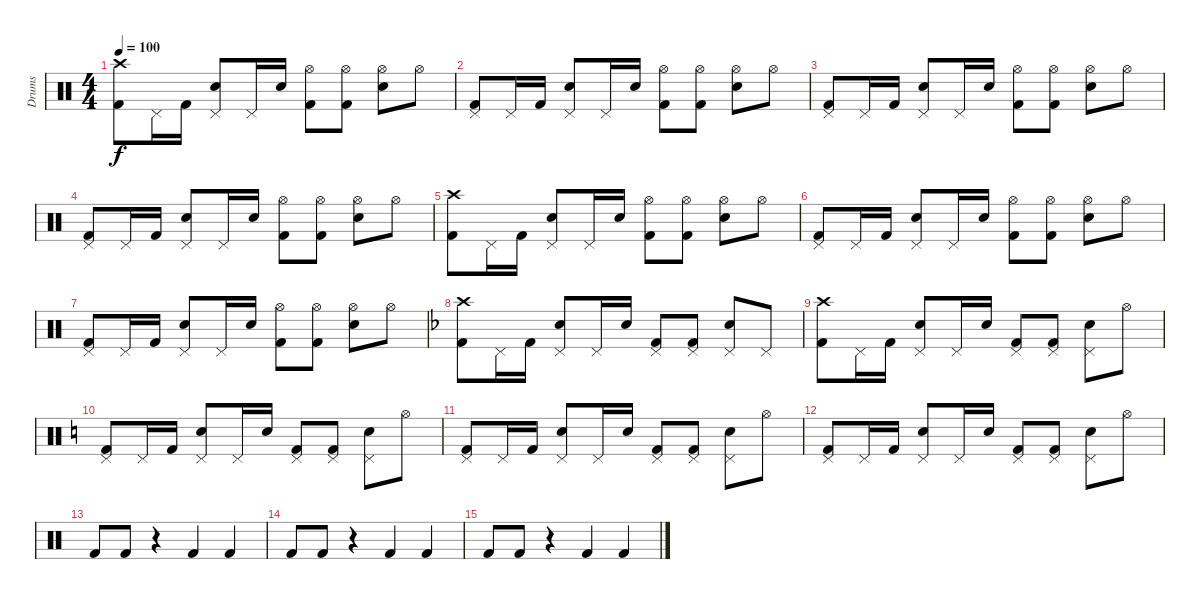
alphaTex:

\track ("Drums" "Drums") {instrument percussion}
\staff {score}
\articulation defaults
\ts (4 4)
\tempo 100
\clef neutral
\ks c
("Crash high (hit)" "Kick (hit) 2").8{dy f} "Pedal Hi-Hat (hit)".16 "Kick (hit) 2".16 ("Pedal Hi-Hat (hit)" "Electric Snare (hit)").8 "Pedal Hi-Hat (hit)".16 "Electric Snare (hit)".16 ("Hi-Hat (open)" "Kick (hit) 2").8 ("Hi-Hat (open)" "Kick (hit) 2").8 ("Hi-Hat (open)" "Electric Snare (hit)").8 "Hi-Hat (open)".8 |
("Pedal Hi-Hat (hit)" "Kick (hit) 2").8 "Pedal Hi-Hat (hit)".16 "Kick (hit) 2".16 ("Pedal Hi-Hat (hit)" "Electric Snare (hit)").8 "Pedal Hi-Hat (hit)".16 "Electric Snare (hit)".16 ("Hi-Hat (open)" "Kick (hit) 2").8 ("Hi-Hat (open)" "Kick (hit) 2").8 ("Hi-Hat (open)" "Electric Snare (hit)").8 "Hi-Hat (open)".8 |
("Pedal Hi-Hat (hit)" "Kick (hit) 2").8 "Pedal Hi-Hat (hit)".16 "Kick (hit) 2".16 ("Pedal Hi-Hat (hit)" "Electric Snare (hit)").8 "Pedal Hi-Hat (hit)".16 "Electric Snare (hit)".16 ("Hi-Hat (open)" "Kick (hit) 2").8 ("Hi-Hat (open)" "Kick (hit) 2").8 ("Hi-Hat (open)" "Electric Snare (hit)").8 "Hi-Hat (open)".8 |
("Pedal Hi-Hat (hit)" "Kick (hit) 2").8 "Pedal Hi-Hat (hit)".16 "Kick (hit) 2".16 ("Pedal Hi-Hat (hit)" "Electric Snare (hit)").8 "Pedal Hi-Hat (hit)".16 "Electric Snare (hit)".16 ("Hi-Hat (open)" "Kick (hit) 2").8 ("Hi-Hat (open)" "Kick (hit) 2").8 ("Hi-Hat (open)" "Electric Snare (hit)").8 "Hi-Hat (open)".8 |
("Crash high (hit)" "Kick (hit) 2").8 "Pedal Hi-Hat (hit)".16 "Kick (hit) 2".16 ("Pedal Hi-Hat (hit)" "Electric Snare (hit)").8 "Pedal Hi-Hat (hit)".16 "Electric Snare (hit)".16 ("Hi-Hat (open)" "Kick (hit) 2").8 ("Hi-Hat (open)" "Kick (hit) 2").8 ("Hi-Hat (open)" "Electric Snare (hit)").8 "Hi-Hat (open)".8 |
("Pedal Hi-Hat (hit)" "Kick (hit) 2").8 "Pedal Hi-Hat (hit)".16 "Kick (hit) 2".16 ("Pedal Hi-Hat (hit)" "Electric Snare (hit)").8 "Pedal Hi-Hat (hit)".16 "Electric Snare (hit)".16 ("Hi-Hat (open)" "Kick (hit) 2").8 ("Hi-Hat (open)" "Kick (hit) 2").8 ("Hi-Hat (open)" "Electric Snare (hit)").8 "Hi-Hat (open)".8 |
("Pedal Hi-Hat (hit)" "Kick (hit) 2").8 "Pedal Hi-Hat (hit)".16 "Kick (hit) 2".16 ("Pedal Hi-Hat (hit)" "Electric Snare (hit)").8 "Pedal Hi-Hat (hit)".16 "Electric Snare (hit)".16 ("Hi-Hat (open)" "Kick (hit) 2").8 ("Hi-Hat (open)" "Kick (hit) 2").8 ("Hi-Hat (open)" "Electric Snare (hit)").8 "Hi-Hat (open)".8 |
\ks f
("Crash high (hit)" "Kick (hit) 2").8 "Pedal Hi-Hat (hit)".16 "Kick (hit) 2".16 ("Pedal Hi-Hat (hit)" "Electric Snare (hit)").8 "Pedal Hi-Hat (hit)".16 "Electric Snare (hit)".16 ("Pedal Hi-Hat (hit)" "Kick (hit) 2").8 ("Pedal Hi-Hat (hit)" "Kick (hit) 2").8 ("Pedal Hi-Hat (hit)" "Electric Snare (hit)").8 "Pedal Hi-Hat (hit)".8 |
("Crash high (hit)" "Kick (hit) 2").8 "Pedal Hi-Hat (hit)".16 "Kick (hit) 2".16 ("Pedal Hi-Hat (hit)" "Electric Snare (hit)").8 "Pedal Hi-Hat (hit)".16 "Electric Snare (hit)".16 ("Pedal Hi-Hat (hit)" "Kick (hit) 2").8 ("Pedal Hi-Hat (hit)" "Kick (hit) 2").8 ("Pedal Hi-Hat (hit)" "Electric Snare (hit)").8 "Hi-Hat (open)".8 |
\ks c
("Pedal Hi-Hat (hit)" "Kick (hit) 2").8 "Pedal Hi-Hat (hit)".16 "Kick (hit) 2".16 ("Pedal Hi-Hat (hit)" "Electric Snare (hit)").8 "Pedal Hi-Hat (hit)".16 "Electric Snare (hit)".16 ("Pedal Hi-Hat (hit)" "Kick (hit) 2").8 ("Pedal Hi-Hat (hit)" "Kick (hit) 2").8 ("Pedal Hi-Hat (hit)" "Electric Snare (hit)").8 "Hi-Hat (open)".8 |
("Pedal Hi-Hat (hit)" "Kick (hit) 2").8 "Pedal Hi-Hat (hit)".16 "Kick (hit) 2".16 ("Pedal Hi-Hat (hit)" "Electric Snare (hit)").8 "Pedal Hi-Hat (hit)".16 "Electric Snare (hit)".16 ("Pedal Hi-Hat (hit)" "Kick (hit) 2").8 ("Pedal Hi-Hat (hit)" "Kick (hit) 2").8 ("Pedal Hi-Hat (hit)" "Electric Snare (hit)").8 "Hi-Hat (open)".8 |
("Pedal Hi-Hat (hit)" "Kick (hit) 2").8 "Pedal Hi-Hat (hit)".16 "Kick (hit) 2".16 ("Pedal Hi-Hat (hit)" "Electric Snare (hit)").8 "Pedal Hi-Hat (hit)".16 "Electric Snare (hit)".16 ("Pedal Hi-Hat (hit)" "Kick (hit) 2").8 ("Pedal Hi-Hat (hit)" "Kick (hit) 2").8 ("Pedal Hi-Hat (hit)" "Electric Snare (hit)").8 "Hi-Hat (open)".8 |
"Kick (hit) 2".8 "Kick (hit) 2".8 r.4 "Kick (hit) 2".4 "Kick (hit) 2".4 |
"Kick (hit) 2".8 "Kick (hit) 2".8 r.4 "Kick (hit) 2".4 "Kick (hit) 2".4 |
"Kick (hit) 2".8 "Kick (hit) 2".8 r.4 "Kick (hit) 2".4 "Kick (hit) 2".4
